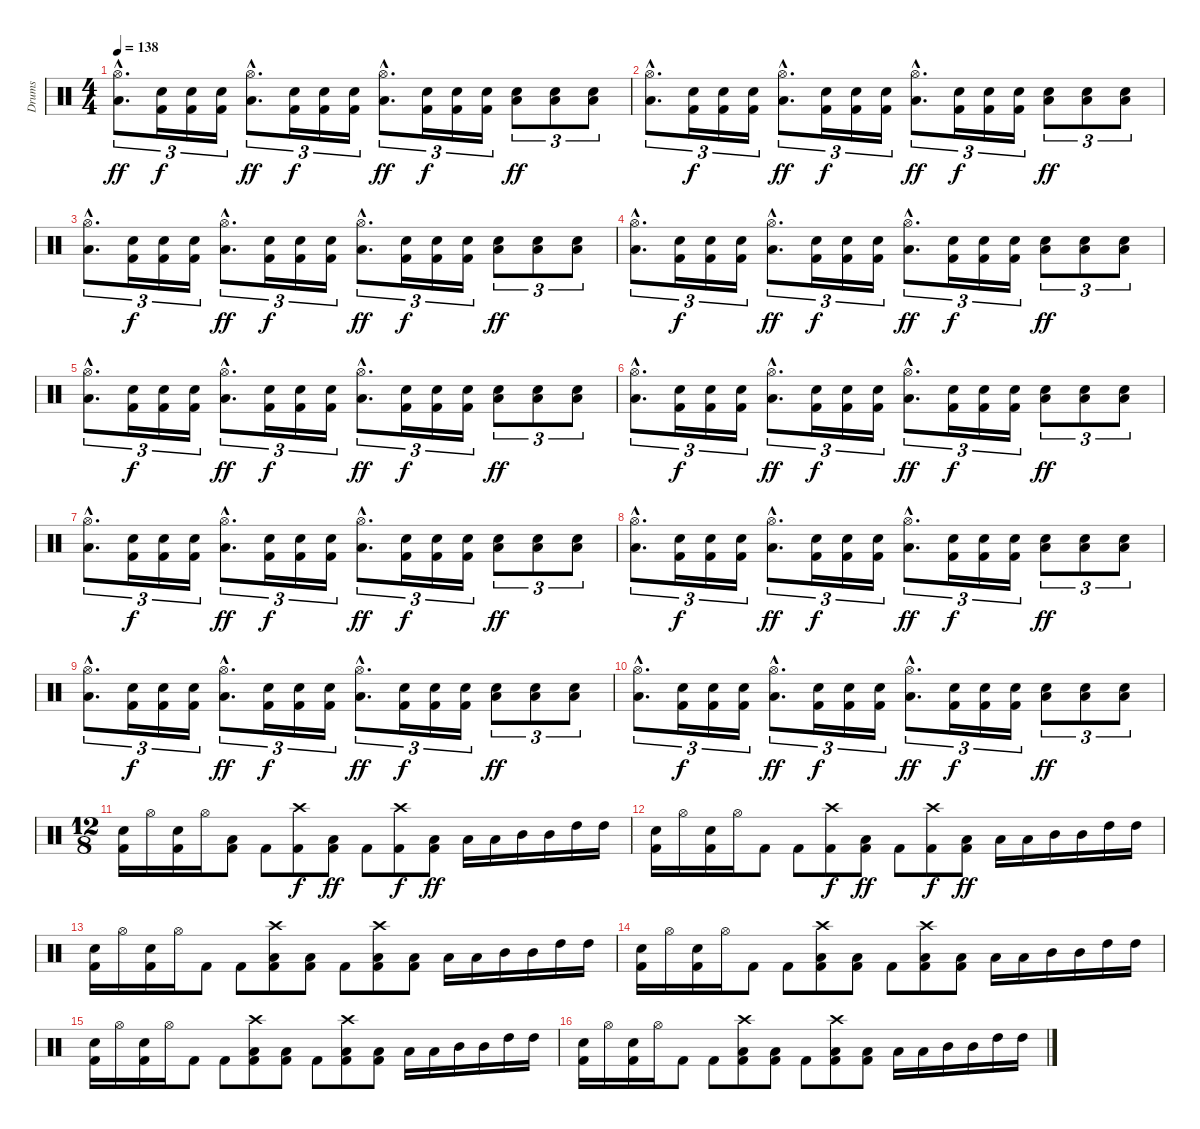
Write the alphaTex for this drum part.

\track ("Drums" "Drums") {instrument percussion}
\staff {score}
\articulation defaults
\ts (4 4)
\tempo 138
\clef neutral
\ks c
("Hi-Hat (open)"{hac} "Low Tom (hit)"{hac}).8{d tu (3 2) dy ff} ("Electric Snare (hit)" "Kick (hit) 2").16{tu (3 2) dy f} ("Electric Snare (hit)" "Kick (hit) 2").16{tu (3 2)} ("Electric Snare (hit)" "Kick (hit) 2").16{tu (3 2)} ("Hi-Hat (open)"{hac} "Low Tom (hit)"{hac}).8{d tu (3 2) dy ff} ("Electric Snare (hit)" "Kick (hit) 2").16{tu (3 2) dy f} ("Electric Snare (hit)" "Kick (hit) 2").16{tu (3 2)} ("Electric Snare (hit)" "Kick (hit) 2").16{tu (3 2)} ("Hi-Hat (open)"{hac} "Low Tom (hit)"{hac}).8{d tu (3 2) dy ff} ("Kick (hit) 2" "Electric Snare (hit)").16{tu (3 2) dy f} ("Kick (hit) 2" "Electric Snare (hit)").16{tu (3 2)} ("Kick (hit) 2" "Electric Snare (hit)").16{tu (3 2)} ("Electric Snare (hit)" "Low Tom (hit)").8{tu (3 2) dy ff} ("Electric Snare (hit)" "Low Tom (hit)").8{tu (3 2)} ("Electric Snare (hit)" "Low Tom (hit)").8{tu (3 2)} |
("Hi-Hat (open)"{hac} "Low Tom (hit)"{hac}).8{d tu (3 2)} ("Electric Snare (hit)" "Kick (hit) 2").16{tu (3 2) dy f} ("Electric Snare (hit)" "Kick (hit) 2").16{tu (3 2)} ("Electric Snare (hit)" "Kick (hit) 2").16{tu (3 2)} ("Hi-Hat (open)"{hac} "Low Tom (hit)"{hac}).8{d tu (3 2) dy ff} ("Electric Snare (hit)" "Kick (hit) 2").16{tu (3 2) dy f} ("Electric Snare (hit)" "Kick (hit) 2").16{tu (3 2)} ("Electric Snare (hit)" "Kick (hit) 2").16{tu (3 2)} ("Hi-Hat (open)"{hac} "Low Tom (hit)"{hac}).8{d tu (3 2) dy ff} ("Kick (hit) 2" "Electric Snare (hit)").16{tu (3 2) dy f} ("Kick (hit) 2" "Electric Snare (hit)").16{tu (3 2)} ("Kick (hit) 2" "Electric Snare (hit)").16{tu (3 2)} ("Electric Snare (hit)" "Low Tom (hit)").8{tu (3 2) dy ff} ("Electric Snare (hit)" "Low Tom (hit)").8{tu (3 2)} ("Electric Snare (hit)" "Low Tom (hit)").8{tu (3 2)} |
("Hi-Hat (open)"{hac} "Low Tom (hit)"{hac}).8{d tu (3 2)} ("Electric Snare (hit)" "Kick (hit) 2").16{tu (3 2) dy f} ("Electric Snare (hit)" "Kick (hit) 2").16{tu (3 2)} ("Electric Snare (hit)" "Kick (hit) 2").16{tu (3 2)} ("Hi-Hat (open)"{hac} "Low Tom (hit)"{hac}).8{d tu (3 2) dy ff} ("Electric Snare (hit)" "Kick (hit) 2").16{tu (3 2) dy f} ("Electric Snare (hit)" "Kick (hit) 2").16{tu (3 2)} ("Electric Snare (hit)" "Kick (hit) 2").16{tu (3 2)} ("Hi-Hat (open)"{hac} "Low Tom (hit)"{hac}).8{d tu (3 2) dy ff} ("Kick (hit) 2" "Electric Snare (hit)").16{tu (3 2) dy f} ("Kick (hit) 2" "Electric Snare (hit)").16{tu (3 2)} ("Kick (hit) 2" "Electric Snare (hit)").16{tu (3 2)} ("Electric Snare (hit)" "Low Tom (hit)").8{tu (3 2) dy ff} ("Electric Snare (hit)" "Low Tom (hit)").8{tu (3 2)} ("Electric Snare (hit)" "Low Tom (hit)").8{tu (3 2)} |
("Hi-Hat (open)"{hac} "Low Tom (hit)"{hac}).8{d tu (3 2)} ("Electric Snare (hit)" "Kick (hit) 2").16{tu (3 2) dy f} ("Electric Snare (hit)" "Kick (hit) 2").16{tu (3 2)} ("Electric Snare (hit)" "Kick (hit) 2").16{tu (3 2)} ("Hi-Hat (open)"{hac} "Low Tom (hit)"{hac}).8{d tu (3 2) dy ff} ("Electric Snare (hit)" "Kick (hit) 2").16{tu (3 2) dy f} ("Electric Snare (hit)" "Kick (hit) 2").16{tu (3 2)} ("Electric Snare (hit)" "Kick (hit) 2").16{tu (3 2)} ("Hi-Hat (open)"{hac} "Low Tom (hit)"{hac}).8{d tu (3 2) dy ff} ("Kick (hit) 2" "Electric Snare (hit)").16{tu (3 2) dy f} ("Kick (hit) 2" "Electric Snare (hit)").16{tu (3 2)} ("Kick (hit) 2" "Electric Snare (hit)").16{tu (3 2)} ("Electric Snare (hit)" "Low Tom (hit)").8{tu (3 2) dy ff} ("Electric Snare (hit)" "Low Tom (hit)").8{tu (3 2)} ("Electric Snare (hit)" "Low Tom (hit)").8{tu (3 2)} |
("Hi-Hat (open)"{hac} "Low Tom (hit)"{hac}).8{d tu (3 2)} ("Electric Snare (hit)" "Kick (hit) 2").16{tu (3 2) dy f} ("Electric Snare (hit)" "Kick (hit) 2").16{tu (3 2)} ("Electric Snare (hit)" "Kick (hit) 2").16{tu (3 2)} ("Hi-Hat (open)"{hac} "Low Tom (hit)"{hac}).8{d tu (3 2) dy ff} ("Electric Snare (hit)" "Kick (hit) 2").16{tu (3 2) dy f} ("Electric Snare (hit)" "Kick (hit) 2").16{tu (3 2)} ("Electric Snare (hit)" "Kick (hit) 2").16{tu (3 2)} ("Hi-Hat (open)"{hac} "Low Tom (hit)"{hac}).8{d tu (3 2) dy ff} ("Kick (hit) 2" "Electric Snare (hit)").16{tu (3 2) dy f} ("Kick (hit) 2" "Electric Snare (hit)").16{tu (3 2)} ("Kick (hit) 2" "Electric Snare (hit)").16{tu (3 2)} ("Electric Snare (hit)" "Low Tom (hit)").8{tu (3 2) dy ff} ("Electric Snare (hit)" "Low Tom (hit)").8{tu (3 2)} ("Electric Snare (hit)" "Low Tom (hit)").8{tu (3 2)} |
("Hi-Hat (open)"{hac} "Low Tom (hit)"{hac}).8{d tu (3 2)} ("Electric Snare (hit)" "Kick (hit) 2").16{tu (3 2) dy f} ("Electric Snare (hit)" "Kick (hit) 2").16{tu (3 2)} ("Electric Snare (hit)" "Kick (hit) 2").16{tu (3 2)} ("Hi-Hat (open)"{hac} "Low Tom (hit)"{hac}).8{d tu (3 2) dy ff} ("Electric Snare (hit)" "Kick (hit) 2").16{tu (3 2) dy f} ("Electric Snare (hit)" "Kick (hit) 2").16{tu (3 2)} ("Electric Snare (hit)" "Kick (hit) 2").16{tu (3 2)} ("Hi-Hat (open)"{hac} "Low Tom (hit)"{hac}).8{d tu (3 2) dy ff} ("Kick (hit) 2" "Electric Snare (hit)").16{tu (3 2) dy f} ("Kick (hit) 2" "Electric Snare (hit)").16{tu (3 2)} ("Kick (hit) 2" "Electric Snare (hit)").16{tu (3 2)} ("Electric Snare (hit)" "Low Tom (hit)").8{tu (3 2) dy ff} ("Electric Snare (hit)" "Low Tom (hit)").8{tu (3 2)} ("Electric Snare (hit)" "Low Tom (hit)").8{tu (3 2)} |
("Hi-Hat (open)"{hac} "Low Tom (hit)"{hac}).8{d tu (3 2)} ("Electric Snare (hit)" "Kick (hit) 2").16{tu (3 2) dy f} ("Electric Snare (hit)" "Kick (hit) 2").16{tu (3 2)} ("Electric Snare (hit)" "Kick (hit) 2").16{tu (3 2)} ("Hi-Hat (open)"{hac} "Low Tom (hit)"{hac}).8{d tu (3 2) dy ff} ("Electric Snare (hit)" "Kick (hit) 2").16{tu (3 2) dy f} ("Electric Snare (hit)" "Kick (hit) 2").16{tu (3 2)} ("Electric Snare (hit)" "Kick (hit) 2").16{tu (3 2)} ("Hi-Hat (open)"{hac} "Low Tom (hit)"{hac}).8{d tu (3 2) dy ff} ("Kick (hit) 2" "Electric Snare (hit)").16{tu (3 2) dy f} ("Kick (hit) 2" "Electric Snare (hit)").16{tu (3 2)} ("Kick (hit) 2" "Electric Snare (hit)").16{tu (3 2)} ("Electric Snare (hit)" "Low Tom (hit)").8{tu (3 2) dy ff} ("Electric Snare (hit)" "Low Tom (hit)").8{tu (3 2)} ("Electric Snare (hit)" "Low Tom (hit)").8{tu (3 2)} |
("Hi-Hat (open)"{hac} "Low Tom (hit)"{hac}).8{d tu (3 2)} ("Electric Snare (hit)" "Kick (hit) 2").16{tu (3 2) dy f} ("Electric Snare (hit)" "Kick (hit) 2").16{tu (3 2)} ("Electric Snare (hit)" "Kick (hit) 2").16{tu (3 2)} ("Hi-Hat (open)"{hac} "Low Tom (hit)"{hac}).8{d tu (3 2) dy ff} ("Electric Snare (hit)" "Kick (hit) 2").16{tu (3 2) dy f} ("Electric Snare (hit)" "Kick (hit) 2").16{tu (3 2)} ("Electric Snare (hit)" "Kick (hit) 2").16{tu (3 2)} ("Hi-Hat (open)"{hac} "Low Tom (hit)"{hac}).8{d tu (3 2) dy ff} ("Kick (hit) 2" "Electric Snare (hit)").16{tu (3 2) dy f} ("Kick (hit) 2" "Electric Snare (hit)").16{tu (3 2)} ("Kick (hit) 2" "Electric Snare (hit)").16{tu (3 2)} ("Electric Snare (hit)" "Low Tom (hit)").8{tu (3 2) dy ff} ("Electric Snare (hit)" "Low Tom (hit)").8{tu (3 2)} ("Electric Snare (hit)" "Low Tom (hit)").8{tu (3 2)} |
("Hi-Hat (open)"{hac} "Low Tom (hit)"{hac}).8{d tu (3 2)} ("Electric Snare (hit)" "Kick (hit) 2").16{tu (3 2) dy f} ("Electric Snare (hit)" "Kick (hit) 2").16{tu (3 2)} ("Electric Snare (hit)" "Kick (hit) 2").16{tu (3 2)} ("Hi-Hat (open)"{hac} "Low Tom (hit)"{hac}).8{d tu (3 2) dy ff} ("Electric Snare (hit)" "Kick (hit) 2").16{tu (3 2) dy f} ("Electric Snare (hit)" "Kick (hit) 2").16{tu (3 2)} ("Electric Snare (hit)" "Kick (hit) 2").16{tu (3 2)} ("Hi-Hat (open)"{hac} "Low Tom (hit)"{hac}).8{d tu (3 2) dy ff} ("Kick (hit) 2" "Electric Snare (hit)").16{tu (3 2) dy f} ("Kick (hit) 2" "Electric Snare (hit)").16{tu (3 2)} ("Kick (hit) 2" "Electric Snare (hit)").16{tu (3 2)} ("Electric Snare (hit)" "Low Tom (hit)").8{tu (3 2) dy ff} ("Electric Snare (hit)" "Low Tom (hit)").8{tu (3 2)} ("Electric Snare (hit)" "Low Tom (hit)").8{tu (3 2)} |
("Hi-Hat (open)"{hac} "Low Tom (hit)"{hac}).8{d tu (3 2)} ("Electric Snare (hit)" "Kick (hit) 2").16{tu (3 2) dy f} ("Electric Snare (hit)" "Kick (hit) 2").16{tu (3 2)} ("Electric Snare (hit)" "Kick (hit) 2").16{tu (3 2)} ("Hi-Hat (open)"{hac} "Low Tom (hit)"{hac}).8{d tu (3 2) dy ff} ("Electric Snare (hit)" "Kick (hit) 2").16{tu (3 2) dy f} ("Electric Snare (hit)" "Kick (hit) 2").16{tu (3 2)} ("Electric Snare (hit)" "Kick (hit) 2").16{tu (3 2)} ("Hi-Hat (open)"{hac} "Low Tom (hit)"{hac}).8{d tu (3 2) dy ff} ("Kick (hit) 2" "Electric Snare (hit)").16{tu (3 2) dy f} ("Kick (hit) 2" "Electric Snare (hit)").16{tu (3 2)} ("Kick (hit) 2" "Electric Snare (hit)").16{tu (3 2)} ("Electric Snare (hit)" "Low Tom (hit)").8{tu (3 2) dy ff} ("Electric Snare (hit)" "Low Tom (hit)").8{tu (3 2)} ("Electric Snare (hit)" "Low Tom (hit)").8{tu (3 2)} |
\ts (12 8)
("Kick (hit) 2" "Electric Snare (hit)").16 "Hi-Hat (open)".16 ("Kick (hit) 2" "Electric Snare (hit)").16 "Hi-Hat (open)".16 ("Kick (hit) 2" "Low Tom (hit)").8 "Kick (hit) 2".8 ("Kick (hit) 2" "Crash high (hit)").8{dy f} ("Kick (hit) 2" "Low Tom (hit)").8{dy ff} "Kick (hit) 2".8 ("Kick (hit) 2" "Crash high (hit)").8{dy f} ("Kick (hit) 2" "Low Tom (hit)").8{dy ff} "Low Tom (hit)".16 "Low Tom (hit)".16 "Mid Tom (hit)".16 "Mid Tom (hit)".16 "High Tom (hit)".16 "High Tom (hit)".16 |
("Kick (hit) 2" "Electric Snare (hit)").16 "Hi-Hat (open)".16 ("Kick (hit) 2" "Electric Snare (hit)").16 "Hi-Hat (open)".16 "Kick (hit) 2".8 "Kick (hit) 2".8 ("Kick (hit) 2" "Crash high (hit)").8{dy f} ("Kick (hit) 2" "Low Tom (hit)").8{dy ff} "Kick (hit) 2".8 ("Kick (hit) 2" "Crash high (hit)").8{dy f} ("Kick (hit) 2" "Low Tom (hit)").8{dy ff} "Low Tom (hit)".16 "Low Tom (hit)".16 "Mid Tom (hit)".16 "Mid Tom (hit)".16 "High Tom (hit)".16 "High Tom (hit)".16 |
("Kick (hit) 2" "Electric Snare (hit)").16 "Hi-Hat (open)".16 ("Kick (hit) 2" "Electric Snare (hit)").16 "Hi-Hat (open)".16 "Kick (hit) 2".8 "Kick (hit) 2".8 ("Kick (hit) 2" "Crash high (hit)" "Low Tom (hit)").8 ("Kick (hit) 2" "Low Tom (hit)").8 "Kick (hit) 2".8 ("Kick (hit) 2" "Crash high (hit)" "Low Tom (hit)").8 ("Kick (hit) 2" "Low Tom (hit)").8 "Low Tom (hit)".16 "Low Tom (hit)".16 "Mid Tom (hit)".16 "Mid Tom (hit)".16 "High Tom (hit)".16 "High Tom (hit)".16 |
("Kick (hit) 2" "Electric Snare (hit)").16 "Hi-Hat (open)".16 ("Kick (hit) 2" "Electric Snare (hit)").16 "Hi-Hat (open)".16 "Kick (hit) 2".8 "Kick (hit) 2".8 ("Kick (hit) 2" "Crash high (hit)" "Low Tom (hit)").8 ("Kick (hit) 2" "Low Tom (hit)").8 "Kick (hit) 2".8 ("Kick (hit) 2" "Crash high (hit)" "Low Tom (hit)").8 ("Kick (hit) 2" "Low Tom (hit)").8 "Low Tom (hit)".16 "Low Tom (hit)".16 "Mid Tom (hit)".16 "Mid Tom (hit)".16 "High Tom (hit)".16 "High Tom (hit)".16 |
("Kick (hit) 2" "Electric Snare (hit)").16 "Hi-Hat (open)".16 ("Kick (hit) 2" "Electric Snare (hit)").16 "Hi-Hat (open)".16 "Kick (hit) 2".8 "Kick (hit) 2".8 ("Kick (hit) 2" "Crash high (hit)" "Low Tom (hit)").8 ("Kick (hit) 2" "Low Tom (hit)").8 "Kick (hit) 2".8 ("Kick (hit) 2" "Crash high (hit)" "Low Tom (hit)").8 ("Kick (hit) 2" "Low Tom (hit)").8 "Low Tom (hit)".16 "Low Tom (hit)".16 "Mid Tom (hit)".16 "Mid Tom (hit)".16 "High Tom (hit)".16 "High Tom (hit)".16 |
("Kick (hit) 2" "Electric Snare (hit)").16 "Hi-Hat (open)".16 ("Kick (hit) 2" "Electric Snare (hit)").16 "Hi-Hat (open)".16 "Kick (hit) 2".8 "Kick (hit) 2".8 ("Kick (hit) 2" "Crash high (hit)" "Low Tom (hit)").8 ("Kick (hit) 2" "Low Tom (hit)").8 "Kick (hit) 2".8 ("Kick (hit) 2" "Crash high (hit)" "Low Tom (hit)").8 ("Kick (hit) 2" "Low Tom (hit)").8 "Low Tom (hit)".16 "Low Tom (hit)".16 "Mid Tom (hit)".16 "Mid Tom (hit)".16 "High Tom (hit)".16 "High Tom (hit)".16
